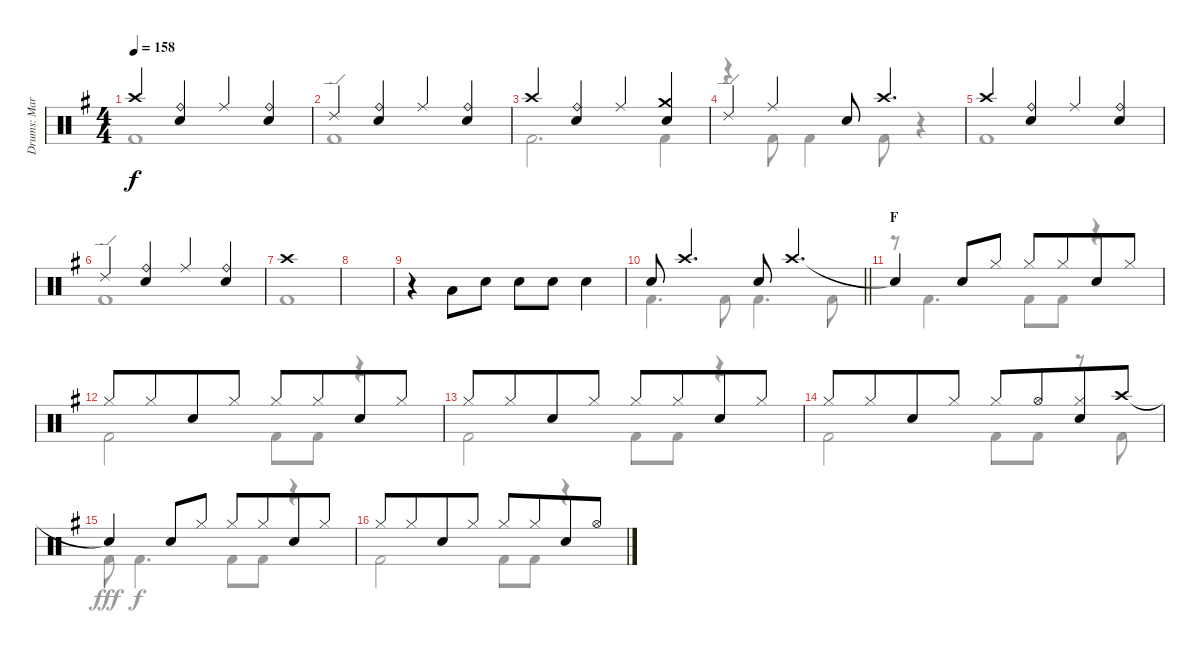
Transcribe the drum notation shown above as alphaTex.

\track ("Drums: Mark" "Drums: Mar") {instrument percussion}
\staff {score}
\articulation defaults
\voice
\ts (4 4)
\tempo 158
\clef neutral
\ks g "Crash high (hit)".4{dy f}
("Ride (bell)" "Snare (hit) 2").4 "Ride (middle)".4 ("Ride (bell)" "Snare (hit) 2").4 |
"Ride (edge) 2".4 ("Ride (bell)" "Snare (hit) 2").4 "Ride (middle)".4 ("Ride (bell)" "Snare (hit) 2").4 |
"Crash high (hit)".4 ("Ride (bell)" "Snare (hit) 2").4 "Ride (middle)".4 ("Crash medium (hit)" "Snare (hit) 2").4 |
"Ride (edge) 2".4 "Ride (middle)".4 "Snare (hit) 2".8 "Crash high (hit)".4{d} |
"Crash high (hit)".4 ("Ride (bell)" "Snare (hit) 2").4 "Ride (middle)".4 ("Ride (bell)" "Snare (hit) 2").4 |
"Ride (edge) 2".4 ("Ride (bell)" "Snare (hit) 2").4 "Ride (middle)".4 ("Ride (bell)" "Snare (hit) 2").4 |
"Crash high (hit)".1 |
|
r.4 "Low Tom (hit)".8 "Snare (hit) 2".8 "Snare (hit) 2".8 "Snare (hit) 2".8 "Snare (hit) 2".4 |
\barLineRight lightlight "Snare (hit) 2".8 "Crash high (hit)".4{d} "Snare (hit) 2".8 "Crash high (hit)".4{d}
|
\section ("" "F")
"Snare (hit)"{t}.4 "Snare (hit) 2".8 "Hi-Hat (closed)".8 "Hi-Hat (closed)".8 "Hi-Hat (closed)".8{beam merge} "Snare (hit) 2".8 "Hi-Hat (closed)".8 |
"Hi-Hat (closed)".8 "Hi-Hat (closed)".8{beam merge} "Snare (hit) 2".8 "Hi-Hat (closed)".8 "Hi-Hat (closed)".8 "Hi-Hat (closed)".8{beam merge} "Snare (hit) 2".8 "Hi-Hat (closed)".8 |
"Hi-Hat (closed)".8 "Hi-Hat (closed)".8{beam merge} "Snare (hit) 2".8 "Hi-Hat (closed)".8 "Hi-Hat (closed)".8 "Hi-Hat (closed)".8{beam merge} "Snare (hit) 2".8 "Hi-Hat (closed)".8 |
"Hi-Hat (closed)".8 "Hi-Hat (closed)".8{beam merge} "Snare (hit) 2".8 "Hi-Hat (closed)".8 "Hi-Hat (closed)".8 "Hi-Hat (open)".8{beam merge} ("Hi-Hat (closed)" "Snare (hit) 2").8 "Crash high (hit)".8 |
"Snare (hit)"{t}.4 "Snare (hit) 2".8 "Hi-Hat (closed)".8 "Hi-Hat (closed)".8 "Hi-Hat (closed)".8{beam merge} "Snare (hit) 2".8 "Hi-Hat (closed)".8 |
"Hi-Hat (closed)".8 "Hi-Hat (closed)".8{beam merge} "Snare (hit) 2".8 "Hi-Hat (closed)".8 "Hi-Hat (closed)".8 "Hi-Hat (closed)".8{beam merge} "Snare (hit) 2".8 "Hi-Hat (open)".8
\voice
\clef neutral
\ottava regular
\simile none
\ks g "Kick (hit) 2".1{dy f}
|
"Kick (hit) 2".1 |
"Kick (hit) 2".2{d} "Kick (hit) 2".4 |
r.4 "Kick (hit) 2".8 "Kick (hit) 2".4 "Kick (hit) 2".8 r.4 |
"Kick (hit) 2".1 |
"Kick (hit) 2".1 |
"Kick (hit) 2".1 |
|
|
\barLineRight lightlight "Kick (hit) 2".4{d} "Kick (hit) 2".8 "Kick (hit) 2".4{d} "Kick (hit) 2".8
|
r.8 "Kick (hit) 2".4{d} "Kick (hit) 2".8 "Kick (hit) 2".8 r.4 |
"Kick (hit) 2".2 "Kick (hit) 2".8 "Kick (hit) 2".8 r.4 |
"Kick (hit) 2".2 "Kick (hit) 2".8 "Kick (hit) 2".8 r.4 |
"Kick (hit) 2".2 "Kick (hit) 2".8 "Kick (hit) 2".8 r.8 "Kick (hit) 2".8 |
"Kick (hit) 2".8{dy fff} "Kick (hit) 2".4{d dy f} "Kick (hit) 2".8 "Kick (hit) 2".8 r.4 |
"Kick (hit) 2".2 "Kick (hit) 2".8 "Kick (hit) 2".8 r.4
